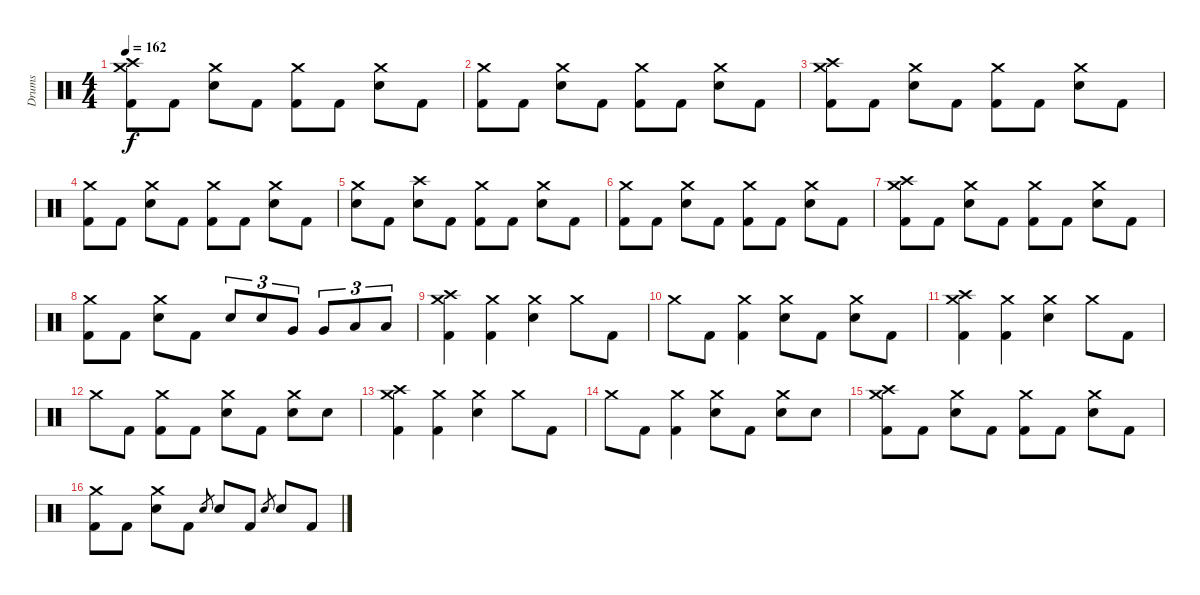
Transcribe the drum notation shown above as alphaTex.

\track ("Drums" "Drums") {instrument percussion}
\staff {score}
\articulation defaults
\ts (4 4)
\tempo 162
\clef neutral
\ks c
("Crash medium (hit)" "Crash high (hit)" "Kick (hit) 2").8{dy f} "Kick (hit) 2".8 ("Crash medium (hit)" "Electric Snare (hit)").8 "Kick (hit) 2".8 ("Crash medium (hit)" "Kick (hit) 2").8 "Kick (hit) 2".8 ("Crash medium (hit)" "Electric Snare (hit)").8 "Kick (hit) 2".8 |
("Crash medium (hit)" "Kick (hit) 2").8 "Kick (hit) 2".8 ("Crash medium (hit)" "Electric Snare (hit)").8 "Kick (hit) 2".8 ("Crash medium (hit)" "Kick (hit) 2").8 "Kick (hit) 2".8 ("Crash medium (hit)" "Electric Snare (hit)").8 "Kick (hit) 2".8 |
("Crash medium (hit)" "Crash high (hit)" "Kick (hit) 2").8 "Kick (hit) 2".8 ("Crash medium (hit)" "Electric Snare (hit)").8 "Kick (hit) 2".8 ("Crash medium (hit)" "Kick (hit) 2").8 "Kick (hit) 2".8 ("Crash medium (hit)" "Electric Snare (hit)").8 "Kick (hit) 2".8 |
("Crash medium (hit)" "Kick (hit) 2").8 "Kick (hit) 2".8 ("Crash medium (hit)" "Electric Snare (hit)").8 "Kick (hit) 2".8 ("Crash medium (hit)" "Kick (hit) 2").8 "Kick (hit) 2".8 ("Crash medium (hit)" "Electric Snare (hit)").8 "Kick (hit) 2".8 |
("Crash medium (hit)" "Electric Snare (hit)").8 "Kick (hit) 2".8 ("Crash high (hit)" "Electric Snare (hit)").8 "Kick (hit) 2".8 ("Crash medium (hit)" "Kick (hit) 2").8 "Kick (hit) 2".8 ("Crash medium (hit)" "Electric Snare (hit)").8 "Kick (hit) 2".8 |
("Crash medium (hit)" "Kick (hit) 2").8 "Kick (hit) 2".8 ("Crash medium (hit)" "Electric Snare (hit)").8 "Kick (hit) 2".8 ("Crash medium (hit)" "Kick (hit) 2").8 "Kick (hit) 2".8 ("Crash medium (hit)" "Electric Snare (hit)").8 "Kick (hit) 2".8 |
("Crash medium (hit)" "Crash high (hit)" "Kick (hit) 2").8 "Kick (hit) 2".8 ("Crash medium (hit)" "Electric Snare (hit)").8 "Kick (hit) 2".8 ("Crash medium (hit)" "Kick (hit) 2").8 "Kick (hit) 2".8 ("Crash medium (hit)" "Electric Snare (hit)").8 "Kick (hit) 2".8 |
("Crash medium (hit)" "Kick (hit) 2").8 "Kick (hit) 2".8 ("Crash medium (hit)" "Electric Snare (hit)").8 "Kick (hit) 2".8 "Electric Snare (hit)".8{tu (3 2)} "Electric Snare (hit)".8{tu (3 2)} "Very Low Tom (hit)".8{tu (3 2)} "Very Low Tom (hit)".8{tu (3 2)} "Low Floor Tom (hit)".8{tu (3 2)} "Low Floor Tom (hit)".8{tu (3 2)} |
("Crash medium (hit)" "Crash high (hit)" "Kick (hit) 2").4 ("Crash medium (hit)" "Kick (hit) 2").4 ("Crash medium (hit)" "Electric Snare (hit)").4 "Crash medium (hit)".8 "Kick (hit) 2".8 |
"Crash medium (hit)".8 "Kick (hit) 2".8 ("Crash medium (hit)" "Kick (hit) 2").4 ("Crash medium (hit)" "Electric Snare (hit)").8 "Kick (hit) 2".8 ("Crash medium (hit)" "Electric Snare (hit)").8 "Kick (hit) 2".8 |
("Crash medium (hit)" "Crash high (hit)" "Kick (hit) 2").4 ("Crash medium (hit)" "Kick (hit) 2").4 ("Crash medium (hit)" "Electric Snare (hit)").4 "Crash medium (hit)".8 "Kick (hit) 2".8 |
"Crash medium (hit)".8 "Kick (hit) 2".8 ("Crash medium (hit)" "Kick (hit) 2").8 "Kick (hit) 2".8 ("Crash medium (hit)" "Electric Snare (hit)").8 "Kick (hit) 2".8 ("Crash medium (hit)" "Electric Snare (hit)").8 "Electric Snare (hit)".8 |
("Crash medium (hit)" "Crash high (hit)" "Kick (hit) 2").4 ("Crash medium (hit)" "Kick (hit) 2").4 ("Crash medium (hit)" "Electric Snare (hit)").4 "Crash medium (hit)".8 "Kick (hit) 2".8 |
"Crash medium (hit)".8 "Kick (hit) 2".8 ("Crash medium (hit)" "Kick (hit) 2").4 ("Crash medium (hit)" "Electric Snare (hit)").8 "Kick (hit) 2".8 ("Crash medium (hit)" "Electric Snare (hit)").8 "Electric Snare (hit)".8 |
("Crash medium (hit)" "Crash high (hit)" "Kick (hit) 2").8 "Kick (hit) 2".8 ("Crash medium (hit)" "Electric Snare (hit)").8 "Kick (hit) 2".8 ("Crash medium (hit)" "Kick (hit) 2").8 "Kick (hit) 2".8 ("Crash medium (hit)" "Electric Snare (hit)").8 "Kick (hit) 2".8 |
("Crash medium (hit)" "Kick (hit) 2").8 "Kick (hit) 2".8 ("Crash medium (hit)" "Electric Snare (hit)").8 "Kick (hit) 2".8 "Electric Snare (hit)".8{gr} "Electric Snare (hit)".8 "Kick (hit) 2".8 "Electric Snare (hit)".8{gr} "Electric Snare (hit)".8 "Kick (hit) 2".8
